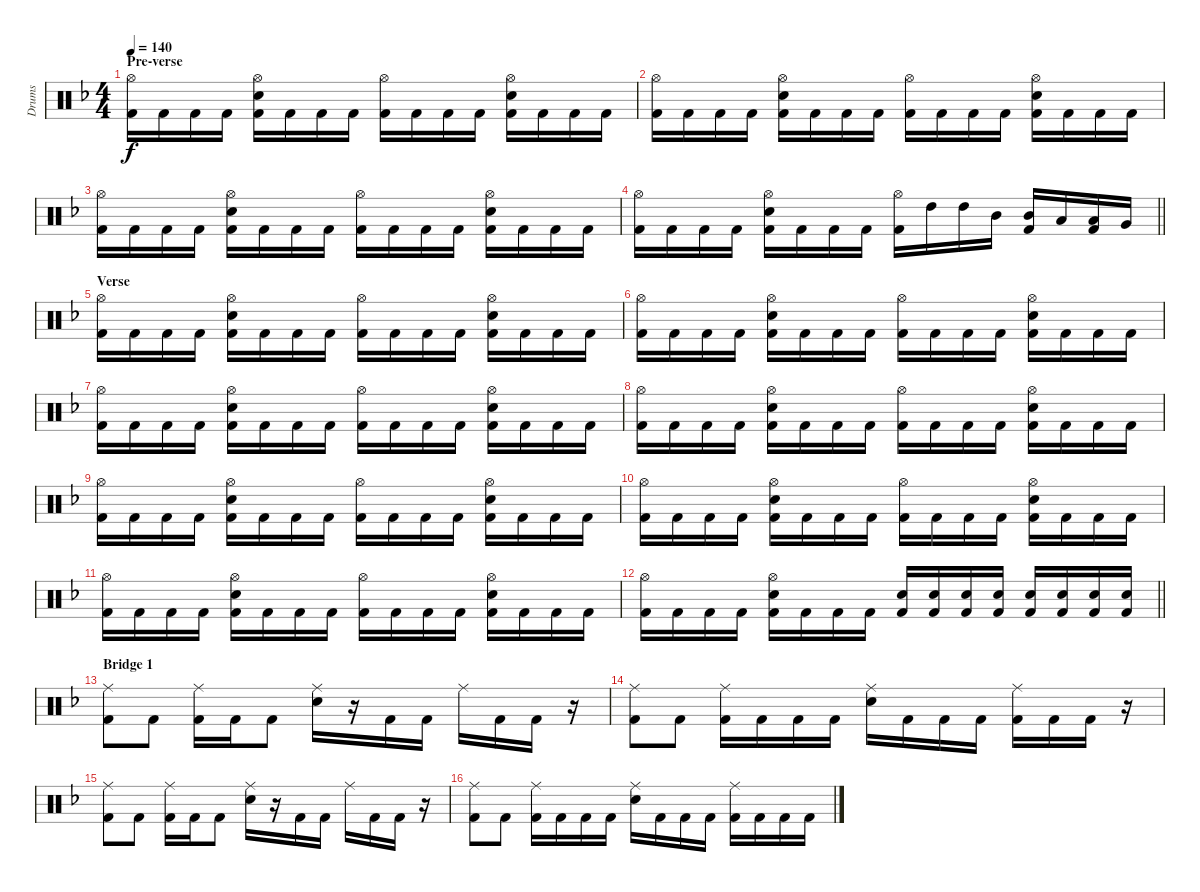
\track ("Drums" "Drums") {instrument percussion}
\staff {score}
\articulation defaults
\ts (4 4)
\section ("" "Pre-verse")
\tempo 140
\clef neutral
\ks dminor
("Hi-Hat (open)" "Kick (hit) 2").16{dy f} "Kick (hit) 2".16 "Kick (hit) 2".16 "Kick (hit) 2".16 ("Hi-Hat (open)" "Snare (hit) 2" "Kick (hit) 2").16 "Kick (hit) 2".16 "Kick (hit) 2".16 "Kick (hit) 2".16 ("Hi-Hat (open)" "Kick (hit) 2").16 "Kick (hit) 2".16 "Kick (hit) 2".16 "Kick (hit) 2".16 ("Hi-Hat (open)" "Snare (hit) 2" "Kick (hit) 2").16 "Kick (hit) 2".16 "Kick (hit) 2".16 "Kick (hit) 2".16 |
("Hi-Hat (open)" "Kick (hit) 2").16 "Kick (hit) 2".16 "Kick (hit) 2".16 "Kick (hit) 2".16 ("Hi-Hat (open)" "Snare (hit) 2" "Kick (hit) 2").16 "Kick (hit) 2".16 "Kick (hit) 2".16 "Kick (hit) 2".16 ("Hi-Hat (open)" "Kick (hit) 2").16 "Kick (hit) 2".16 "Kick (hit) 2".16 "Kick (hit) 2".16 ("Hi-Hat (open)" "Snare (hit) 2" "Kick (hit) 2").16 "Kick (hit) 2".16 "Kick (hit) 2".16 "Kick (hit) 2".16 |
("Hi-Hat (open)" "Kick (hit) 2").16 "Kick (hit) 2".16 "Kick (hit) 2".16 "Kick (hit) 2".16 ("Hi-Hat (open)" "Snare (hit) 2" "Kick (hit) 2").16 "Kick (hit) 2".16 "Kick (hit) 2".16 "Kick (hit) 2".16 ("Hi-Hat (open)" "Kick (hit) 2").16 "Kick (hit) 2".16 "Kick (hit) 2".16 "Kick (hit) 2".16 ("Hi-Hat (open)" "Snare (hit) 2" "Kick (hit) 2").16 "Kick (hit) 2".16 "Kick (hit) 2".16 "Kick (hit) 2".16 |
\barLineRight lightlight
("Hi-Hat (open)" "Kick (hit) 2").16 "Kick (hit) 2".16 "Kick (hit) 2".16 "Kick (hit) 2".16 ("Hi-Hat (open)" "Snare (hit) 2" "Kick (hit) 2").16 "Kick (hit) 2".16 "Kick (hit) 2".16 "Kick (hit) 2".16 ("Hi-Hat (open)" "Kick (hit) 2").16 "High Tom (hit)".16 "High Tom (hit)".16 "Mid Tom (hit)".16 ("Mid Tom (hit)" "Kick (hit) 2").16 "Low Tom (hit)".16 ("Low Tom (hit)" "Kick (hit) 2").16 "Very Low Tom (hit)".16 |
\section ("" "Verse")
("Hi-Hat (open)" "Kick (hit) 2").16 "Kick (hit) 2".16 "Kick (hit) 2".16 "Kick (hit) 2".16 ("Hi-Hat (open)" "Snare (hit) 2" "Kick (hit) 2").16 "Kick (hit) 2".16 "Kick (hit) 2".16 "Kick (hit) 2".16 ("Hi-Hat (open)" "Kick (hit) 2").16 "Kick (hit) 2".16 "Kick (hit) 2".16 "Kick (hit) 2".16 ("Hi-Hat (open)" "Snare (hit) 2" "Kick (hit) 2").16 "Kick (hit) 2".16 "Kick (hit) 2".16 "Kick (hit) 2".16 |
("Hi-Hat (open)" "Kick (hit) 2").16 "Kick (hit) 2".16 "Kick (hit) 2".16 "Kick (hit) 2".16 ("Hi-Hat (open)" "Snare (hit) 2" "Kick (hit) 2").16 "Kick (hit) 2".16 "Kick (hit) 2".16 "Kick (hit) 2".16 ("Hi-Hat (open)" "Kick (hit) 2").16 "Kick (hit) 2".16 "Kick (hit) 2".16 "Kick (hit) 2".16 ("Hi-Hat (open)" "Snare (hit) 2" "Kick (hit) 2").16 "Kick (hit) 2".16 "Kick (hit) 2".16 "Kick (hit) 2".16 |
("Hi-Hat (open)" "Kick (hit) 2").16 "Kick (hit) 2".16 "Kick (hit) 2".16 "Kick (hit) 2".16 ("Hi-Hat (open)" "Snare (hit) 2" "Kick (hit) 2").16 "Kick (hit) 2".16 "Kick (hit) 2".16 "Kick (hit) 2".16 ("Hi-Hat (open)" "Kick (hit) 2").16 "Kick (hit) 2".16 "Kick (hit) 2".16 "Kick (hit) 2".16 ("Hi-Hat (open)" "Snare (hit) 2" "Kick (hit) 2").16 "Kick (hit) 2".16 "Kick (hit) 2".16 "Kick (hit) 2".16 |
("Hi-Hat (open)" "Kick (hit) 2").16 "Kick (hit) 2".16 "Kick (hit) 2".16 "Kick (hit) 2".16 ("Hi-Hat (open)" "Snare (hit) 2" "Kick (hit) 2").16 "Kick (hit) 2".16 "Kick (hit) 2".16 "Kick (hit) 2".16 ("Hi-Hat (open)" "Kick (hit) 2").16 "Kick (hit) 2".16 "Kick (hit) 2".16 "Kick (hit) 2".16 ("Hi-Hat (open)" "Snare (hit) 2" "Kick (hit) 2").16 "Kick (hit) 2".16 "Kick (hit) 2".16 "Kick (hit) 2".16 |
("Hi-Hat (open)" "Kick (hit) 2").16 "Kick (hit) 2".16 "Kick (hit) 2".16 "Kick (hit) 2".16 ("Hi-Hat (open)" "Snare (hit) 2" "Kick (hit) 2").16 "Kick (hit) 2".16 "Kick (hit) 2".16 "Kick (hit) 2".16 ("Hi-Hat (open)" "Kick (hit) 2").16 "Kick (hit) 2".16 "Kick (hit) 2".16 "Kick (hit) 2".16 ("Hi-Hat (open)" "Snare (hit) 2" "Kick (hit) 2").16 "Kick (hit) 2".16 "Kick (hit) 2".16 "Kick (hit) 2".16 |
("Hi-Hat (open)" "Kick (hit) 2").16 "Kick (hit) 2".16 "Kick (hit) 2".16 "Kick (hit) 2".16 ("Hi-Hat (open)" "Snare (hit) 2" "Kick (hit) 2").16 "Kick (hit) 2".16 "Kick (hit) 2".16 "Kick (hit) 2".16 ("Hi-Hat (open)" "Kick (hit) 2").16 "Kick (hit) 2".16 "Kick (hit) 2".16 "Kick (hit) 2".16 ("Hi-Hat (open)" "Snare (hit) 2" "Kick (hit) 2").16 "Kick (hit) 2".16 "Kick (hit) 2".16 "Kick (hit) 2".16 |
("Hi-Hat (open)" "Kick (hit) 2").16 "Kick (hit) 2".16 "Kick (hit) 2".16 "Kick (hit) 2".16 ("Hi-Hat (open)" "Snare (hit) 2" "Kick (hit) 2").16 "Kick (hit) 2".16 "Kick (hit) 2".16 "Kick (hit) 2".16 ("Hi-Hat (open)" "Kick (hit) 2").16 "Kick (hit) 2".16 "Kick (hit) 2".16 "Kick (hit) 2".16 ("Hi-Hat (open)" "Snare (hit) 2" "Kick (hit) 2").16 "Kick (hit) 2".16 "Kick (hit) 2".16 "Kick (hit) 2".16 |
\barLineRight lightlight
("Hi-Hat (open)" "Kick (hit) 2").16 "Kick (hit) 2".16 "Kick (hit) 2".16 "Kick (hit) 2".16 ("Hi-Hat (open)" "Snare (hit) 2" "Kick (hit) 2").16 "Kick (hit) 2".16 "Kick (hit) 2".16 "Kick (hit) 2".16 ("Snare (hit) 2" "Kick (hit) 2").16 ("Snare (hit) 2" "Kick (hit) 2").16 ("Snare (hit) 2" "Kick (hit) 2").16 ("Snare (hit) 2" "Kick (hit) 2").16 ("Snare (hit) 2" "Kick (hit) 2").16 ("Snare (hit) 2" "Kick (hit) 2").16 ("Snare (hit) 2" "Kick (hit) 2").16 ("Snare (hit) 2" "Kick (hit) 2").16 |
\section ("" "Bridge 1")
("Ride (middle)" "Kick (hit) 2").8 "Kick (hit) 2".8 ("Ride (middle)" "Kick (hit) 2").16 "Kick (hit) 2".16 "Kick (hit) 2".8 ("Ride (middle)" "Snare (hit) 2").16 r.16 "Kick (hit) 2".16 "Kick (hit) 2".16 "Ride (middle)".16 "Kick (hit) 2".16 "Kick (hit) 2".16 r.16 |
("Ride (middle)" "Kick (hit) 2").8 "Kick (hit) 2".8 ("Ride (middle)" "Kick (hit) 2").16 "Kick (hit) 2".16 "Kick (hit) 2".16 "Kick (hit) 2".16 ("Ride (middle)" "Snare (hit) 2").16 "Kick (hit) 2".16 "Kick (hit) 2".16 "Kick (hit) 2".16 ("Ride (middle)" "Kick (hit) 2").16 "Kick (hit) 2".16 "Kick (hit) 2".16 r.16 |
("Ride (middle)" "Kick (hit) 2").8 "Kick (hit) 2".8 ("Ride (middle)" "Kick (hit) 2").16 "Kick (hit) 2".16 "Kick (hit) 2".8 ("Ride (middle)" "Snare (hit) 2").16 r.16 "Kick (hit) 2".16 "Kick (hit) 2".16 "Ride (middle)".16 "Kick (hit) 2".16 "Kick (hit) 2".16 r.16 |
("Ride (middle)" "Kick (hit) 2").8 "Kick (hit) 2".8 ("Ride (middle)" "Kick (hit) 2").16 "Kick (hit) 2".16 "Kick (hit) 2".16 "Kick (hit) 2".16 ("Ride (middle)" "Snare (hit) 2").16 "Kick (hit) 2".16 "Kick (hit) 2".16 "Kick (hit) 2".16 ("Ride (middle)" "Kick (hit) 2").16 "Kick (hit) 2".16 "Kick (hit) 2".16 "Kick (hit) 2".16
